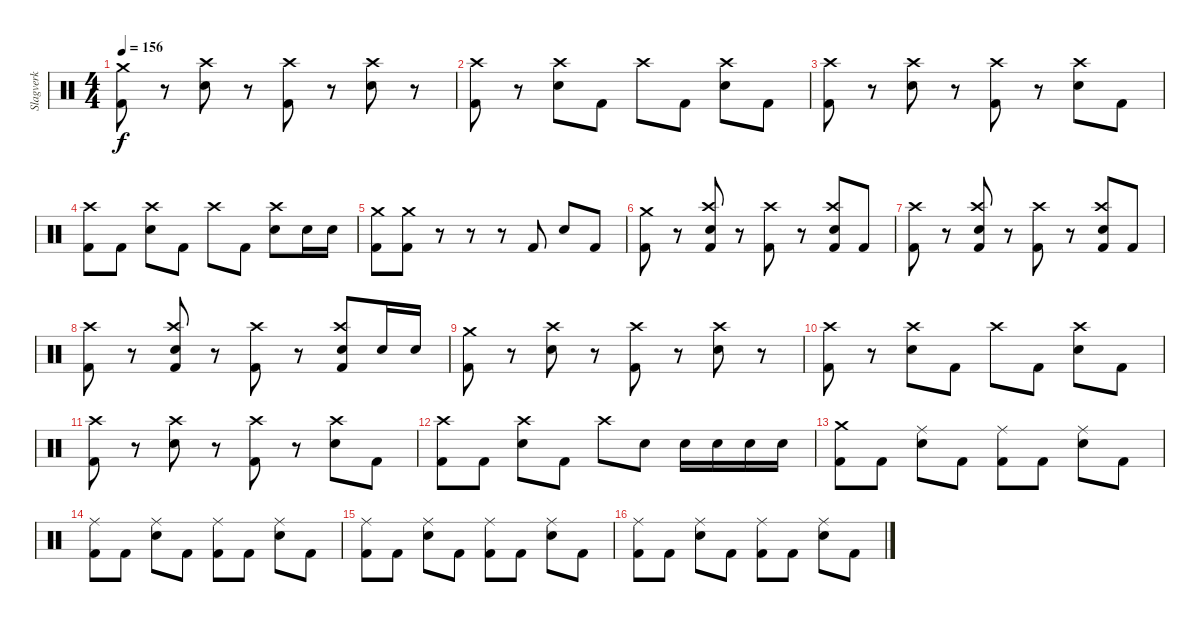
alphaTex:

\track ("Slagverk" "Slagverk") {instrument percussion}
\staff {score}
\articulation defaults
\ts (4 4)
\tempo 156
\clef neutral
\ks c
("Crash medium (hit)" "Kick (hit) 2").8{dy f} r.8 ("Crash high (hit)" "Snare (hit) 2").8 r.8 ("Crash high (hit)" "Kick (hit) 2").8 r.8 ("Crash high (hit)" "Snare (hit) 2").8 r.8 |
("Crash high (hit)" "Kick (hit) 2").8 r.8 ("Crash high (hit)" "Snare (hit) 2").8 "Kick (hit) 2".8 "Crash high (hit)".8 "Kick (hit) 2".8 ("Crash high (hit)" "Snare (hit) 2").8 "Kick (hit) 2".8 |
("Crash high (hit)" "Kick (hit) 2").8 r.8 ("Crash high (hit)" "Snare (hit) 2").8 r.8 ("Crash high (hit)" "Kick (hit) 2").8 r.8 ("Crash high (hit)" "Snare (hit) 2").8 "Kick (hit) 2".8 |
("Crash high (hit)" "Kick (hit) 2").8 "Kick (hit) 2".8 ("Crash high (hit)" "Snare (hit) 2").8 "Kick (hit) 2".8 "Crash high (hit)".8 "Kick (hit) 2".8 ("Crash high (hit)" "Snare (hit) 2").8 "Snare (hit) 2".16 "Snare (hit) 2".16 |
("Crash medium (hit)" "Kick (hit) 2").8 ("Crash medium (hit)" "Kick (hit) 2").8 r.8 r.8 r.8 "Kick (hit) 2".8 "Snare (hit) 2".8 "Kick (hit) 2".8 |
("Crash medium (hit)" "Kick (hit) 2").8 r.8 ("Crash high (hit)" "Snare (hit) 2" "Kick (hit) 2").8 r.8 ("Crash high (hit)" "Kick (hit) 2").8 r.8 ("Crash high (hit)" "Snare (hit) 2" "Kick (hit) 2").8 "Kick (hit) 2".8 |
("Crash high (hit)" "Kick (hit) 2").8 r.8 ("Crash high (hit)" "Snare (hit) 2" "Kick (hit) 2").8 r.8 ("Crash high (hit)" "Kick (hit) 2").8 r.8 ("Crash high (hit)" "Snare (hit) 2" "Kick (hit) 2").8 "Kick (hit) 2".8 |
("Crash high (hit)" "Kick (hit) 2").8 r.8 ("Crash high (hit)" "Snare (hit) 2" "Kick (hit) 2").8 r.8 ("Crash high (hit)" "Kick (hit) 2").8 r.8 ("Crash high (hit)" "Snare (hit) 2" "Kick (hit) 2").8 "Snare (hit) 2".16 "Snare (hit) 2".16 |
("Crash medium (hit)" "Kick (hit) 2").8 r.8 ("Crash high (hit)" "Snare (hit) 2").8 r.8 ("Crash high (hit)" "Kick (hit) 2").8 r.8 ("Crash high (hit)" "Snare (hit) 2").8 r.8 |
("Crash high (hit)" "Kick (hit) 2").8 r.8 ("Crash high (hit)" "Snare (hit) 2").8 "Kick (hit) 2".8 "Crash high (hit)".8 "Kick (hit) 2".8 ("Crash high (hit)" "Snare (hit) 2").8 "Kick (hit) 2".8 |
("Crash high (hit)" "Kick (hit) 2").8 r.8 ("Crash high (hit)" "Snare (hit) 2").8 r.8 ("Crash high (hit)" "Kick (hit) 2").8 r.8 ("Crash high (hit)" "Snare (hit) 2").8 "Kick (hit) 2".8 |
("Crash high (hit)" "Kick (hit) 2").8 "Kick (hit) 2".8 ("Crash high (hit)" "Snare (hit) 2").8 "Kick (hit) 2".8 "Crash high (hit)".8 "Snare (hit) 2".8 "Snare (hit) 2".16 "Snare (hit) 2".16 "Snare (hit) 2".16 "Snare (hit) 2".16 |
("Crash medium (hit)" "Kick (hit) 2").8 "Kick (hit) 2".8 ("Ride (middle)" "Snare (hit) 2").8 "Kick (hit) 2".8 ("Ride (middle)" "Kick (hit) 2").8 "Kick (hit) 2".8 ("Ride (middle)" "Snare (hit) 2").8 "Kick (hit) 2".8 |
("Ride (middle)" "Kick (hit) 2").8 "Kick (hit) 2".8 ("Ride (middle)" "Snare (hit) 2").8 "Kick (hit) 2".8 ("Ride (middle)" "Kick (hit) 2").8 "Kick (hit) 2".8 ("Ride (middle)" "Snare (hit) 2").8 "Kick (hit) 2".8 |
("Ride (middle)" "Kick (hit) 2").8 "Kick (hit) 2".8 ("Ride (middle)" "Snare (hit) 2").8 "Kick (hit) 2".8 ("Ride (middle)" "Kick (hit) 2").8 "Kick (hit) 2".8 ("Ride (middle)" "Snare (hit) 2").8 "Kick (hit) 2".8 |
("Ride (middle)" "Kick (hit) 2").8 "Kick (hit) 2".8 ("Ride (middle)" "Snare (hit) 2").8 "Kick (hit) 2".8 ("Ride (middle)" "Kick (hit) 2").8 "Kick (hit) 2".8 ("Ride (middle)" "Snare (hit) 2").8 "Kick (hit) 2".8
